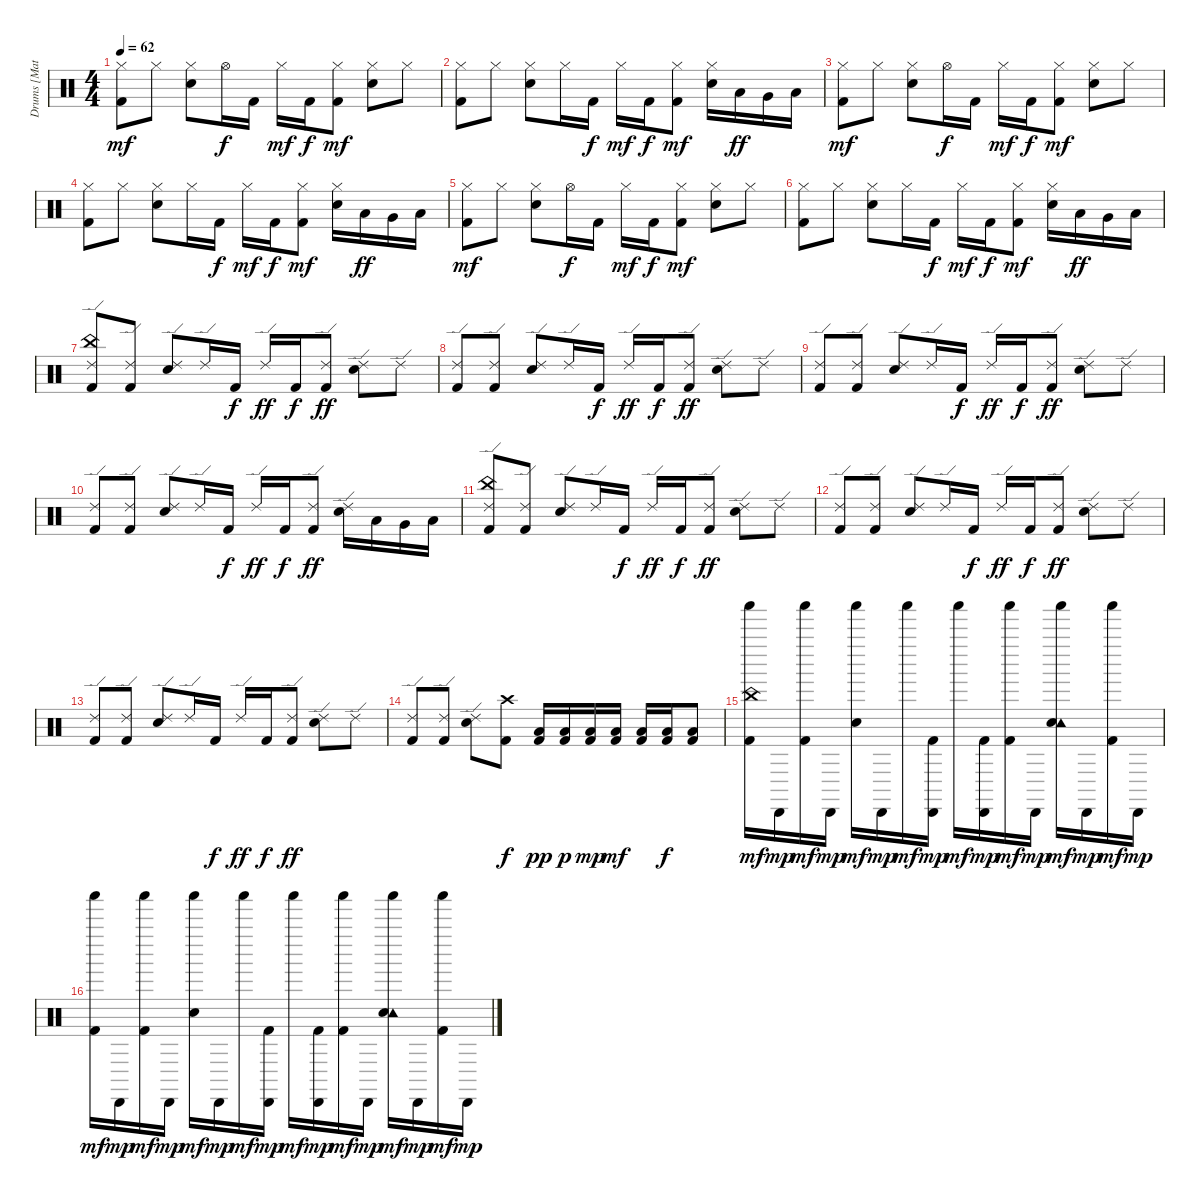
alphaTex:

\track ("Drums [Matt]" "Drums [Mat") {instrument percussion}
\staff {score}
\articulation defaults
\ts (4 4)
\tempo 62
\clef neutral
\ks c
("Hi-Hat (closed)" "Kick (hit) 2").8{dy mf} "Hi-Hat (closed)".8 ("Hi-Hat (closed)" "Snare (hit) 2").8 "Hi-Hat (open)".16{dy f} "Kick (hit) 2".16 "Hi-Hat (closed)".16{dy mf} "Kick (hit) 2".16{dy f} ("Hi-Hat (closed)" "Kick (hit) 2").8{dy mf} ("Hi-Hat (closed)" "Snare (hit) 2").8 "Hi-Hat (closed)".8 |
("Hi-Hat (closed)" "Kick (hit) 2").8 "Hi-Hat (closed)".8 ("Hi-Hat (closed)" "Snare (hit) 2").8 "Hi-Hat (closed)".16 "Kick (hit) 2".16{dy f} "Hi-Hat (closed)".16{dy mf} "Kick (hit) 2".16{dy f} ("Hi-Hat (closed)" "Kick (hit) 2").8{dy mf} ("Hi-Hat (closed)" "Snare (hit) 2").16 "Low Tom (hit)".16{dy ff} "Very Low Tom (hit)".16 "Low Floor Tom (hit)".16 |
("Hi-Hat (closed)" "Kick (hit) 2").8{dy mf} "Hi-Hat (closed)".8 ("Hi-Hat (closed)" "Snare (hit) 2").8 "Hi-Hat (open)".16{dy f} "Kick (hit) 2".16 "Hi-Hat (closed)".16{dy mf} "Kick (hit) 2".16{dy f} ("Hi-Hat (closed)" "Kick (hit) 2").8{dy mf} ("Hi-Hat (closed)" "Snare (hit) 2").8 "Hi-Hat (closed)".8 |
("Hi-Hat (closed)" "Kick (hit) 2").8 "Hi-Hat (closed)".8 ("Hi-Hat (closed)" "Snare (hit) 2").8 "Hi-Hat (closed)".16 "Kick (hit) 2".16{dy f} "Hi-Hat (closed)".16{dy mf} "Kick (hit) 2".16{dy f} ("Hi-Hat (closed)" "Kick (hit) 2").8{dy mf} ("Hi-Hat (closed)" "Snare (hit) 2").16 "Low Tom (hit)".16{dy ff} "Very Low Tom (hit)".16 "Low Floor Tom (hit)".16 |
("Hi-Hat (closed)" "Kick (hit) 2").8{dy mf} "Hi-Hat (closed)".8 ("Hi-Hat (closed)" "Snare (hit) 2").8 "Hi-Hat (open)".16{dy f} "Kick (hit) 2".16 "Hi-Hat (closed)".16{dy mf} "Kick (hit) 2".16{dy f} ("Hi-Hat (closed)" "Kick (hit) 2").8{dy mf} ("Hi-Hat (closed)" "Snare (hit) 2").8 "Hi-Hat (closed)".8 |
("Hi-Hat (closed)" "Kick (hit) 2").8 "Hi-Hat (closed)".8 ("Hi-Hat (closed)" "Snare (hit) 2").8 "Hi-Hat (closed)".16 "Kick (hit) 2".16{dy f} "Hi-Hat (closed)".16{dy mf} "Kick (hit) 2".16{dy f} ("Hi-Hat (closed)" "Kick (hit) 2").8{dy mf} ("Hi-Hat (closed)" "Snare (hit) 2").16 "Low Tom (hit)".16{dy ff} "Very Low Tom (hit)".16 "Low Floor Tom (hit)".16 |
("China (hit)" "Ride (edge) 2" "Kick (hit) 2").8 ("Ride (edge) 2" "Kick (hit) 2").8 ("Ride (edge) 2" "Snare (hit) 2").8 "Ride (edge) 2".16 "Kick (hit) 2".16{dy f} "Ride (edge) 2".16{dy ff} "Kick (hit) 2".16{dy f} ("Ride (edge) 2" "Kick (hit) 2").8{dy ff} ("Ride (edge) 2" "Snare (hit) 2").8 "Ride (edge) 2".8 |
("Ride (edge) 2" "Kick (hit) 2").8 ("Ride (edge) 2" "Kick (hit) 2").8 ("Ride (edge) 2" "Snare (hit) 2").8 "Ride (edge) 2".16 "Kick (hit) 2".16{dy f} "Ride (edge) 2".16{dy ff} "Kick (hit) 2".16{dy f} ("Ride (edge) 2" "Kick (hit) 2").8{dy ff} ("Ride (edge) 2" "Snare (hit) 2").8 "Ride (edge) 2".8 |
("Ride (edge) 2" "Kick (hit) 2").8 ("Ride (edge) 2" "Kick (hit) 2").8 ("Ride (edge) 2" "Snare (hit) 2").8 "Ride (edge) 2".16 "Kick (hit) 2".16{dy f} "Ride (edge) 2".16{dy ff} "Kick (hit) 2".16{dy f} ("Ride (edge) 2" "Kick (hit) 2").8{dy ff} ("Ride (edge) 2" "Snare (hit) 2").8 "Ride (edge) 2".8 |
("Ride (edge) 2" "Kick (hit) 2").8 ("Ride (edge) 2" "Kick (hit) 2").8 ("Ride (edge) 2" "Snare (hit) 2").8 "Ride (edge) 2".16 "Kick (hit) 2".16{dy f} "Ride (edge) 2".16{dy ff} "Kick (hit) 2".16{dy f} ("Ride (edge) 2" "Kick (hit) 2").8{dy ff} ("Ride (edge) 2" "Snare (hit) 2").16 "Low Tom (hit)".16 "Very Low Tom (hit)".16 "Low Floor Tom (hit)".16 |
("China (hit)" "Ride (edge) 2" "Kick (hit) 2").8 ("Ride (edge) 2" "Kick (hit) 2").8 ("Ride (edge) 2" "Snare (hit) 2").8 "Ride (edge) 2".16 "Kick (hit) 2".16{dy f} "Ride (edge) 2".16{dy ff} "Kick (hit) 2".16{dy f} ("Ride (edge) 2" "Kick (hit) 2").8{dy ff} ("Ride (edge) 2" "Snare (hit) 2").8 "Ride (edge) 2".8 |
("Ride (edge) 2" "Kick (hit) 2").8 ("Ride (edge) 2" "Kick (hit) 2").8 ("Ride (edge) 2" "Snare (hit) 2").8 "Ride (edge) 2".16 "Kick (hit) 2".16{dy f} "Ride (edge) 2".16{dy ff} "Kick (hit) 2".16{dy f} ("Ride (edge) 2" "Kick (hit) 2").8{dy ff} ("Ride (edge) 2" "Snare (hit) 2").8 "Ride (edge) 2".8 |
("Ride (edge) 2" "Kick (hit) 2").8 ("Ride (edge) 2" "Kick (hit) 2").8 ("Ride (edge) 2" "Snare (hit) 2").8 "Ride (edge) 2".16 "Kick (hit) 2".16{dy f} "Ride (edge) 2".16{dy ff} "Kick (hit) 2".16{dy f} ("Ride (edge) 2" "Kick (hit) 2").8{dy ff} ("Ride (edge) 2" "Snare (hit) 2").8 "Ride (edge) 2".8 |
("Ride (edge) 2" "Kick (hit) 2").8 ("Ride (edge) 2" "Kick (hit) 2").8 ("Ride (edge) 2" "Snare (hit) 2").8 ("Crash high (hit)" "Kick (hit) 2").8{dy f} ("Low Tom (hit)" "Kick (hit) 2").16{dy pp} ("Low Tom (hit)" "Kick (hit) 2").16{dy p} ("Low Tom (hit)" "Kick (hit) 2").16{dy mp} ("Low Tom (hit)" "Kick (hit) 2").16{dy mf} ("Low Tom (hit)" "Kick (hit) 2").16 ("Low Tom (hit)" "Kick (hit) 2").16{dy f} ("Low Tom (hit)" "Kick (hit) 2").8 |
("China (hit)" "Shaker (hit)" "Kick (hit) 2").16{dy mf} "Cabasa (hit)".16{dy mp} ("Shaker (hit)" "Kick (hit) 2").16{dy mf} "Cabasa (hit)".16{dy mp} ("Shaker (hit)" "Snare (hit) 2").16{dy mf} "Cabasa (hit)".16{dy mp} "Shaker (hit)".16{dy mf} ("Cabasa (hit)" "Kick (hit) 2").16{dy mp} "Shaker (hit)".16{dy mf} ("Cabasa (hit)" "Kick (hit) 2").16{dy mp} ("Shaker (hit)" "Kick (hit) 2").16{dy mf} "Cabasa (hit)".16{dy mp} ("Tambourine (hit)" "Shaker (hit)" "Snare (hit) 2").16{dy mf} "Cabasa (hit)".16{dy mp} ("Shaker (hit)" "Kick (hit) 2").16{dy mf} "Cabasa (hit)".16{dy mp} |
("Shaker (hit)" "Kick (hit) 2").16{dy mf} "Cabasa (hit)".16{dy mp} ("Shaker (hit)" "Kick (hit) 2").16{dy mf} "Cabasa (hit)".16{dy mp} ("Shaker (hit)" "Snare (hit) 2").16{dy mf} "Cabasa (hit)".16{dy mp} "Shaker (hit)".16{dy mf} ("Cabasa (hit)" "Kick (hit) 2").16{dy mp} "Shaker (hit)".16{dy mf} ("Cabasa (hit)" "Kick (hit) 2").16{dy mp} ("Shaker (hit)" "Kick (hit) 2").16{dy mf} "Cabasa (hit)".16{dy mp} ("Tambourine (hit)" "Shaker (hit)" "Snare (hit) 2").16{dy mf} "Cabasa (hit)".16{dy mp} ("Shaker (hit)" "Kick (hit) 2").16{dy mf} "Cabasa (hit)".16{dy mp}
